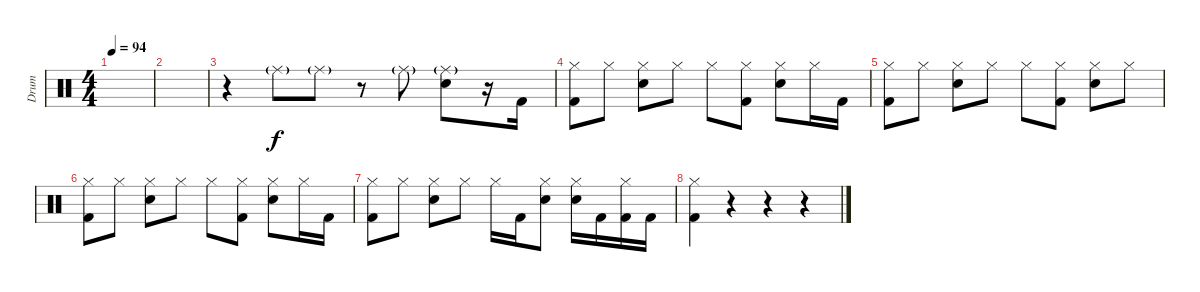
\track ("Drum" "Drum") {instrument percussion}
\staff {score}
\articulation defaults
\ts (4 4)
\tempo 94
\clef neutral
\ks c
|
|
r.4 "Ride (middle)"{g}.8 "Ride (middle)"{g}.8 r.8 "Ride (middle)"{g}.8 ("Electric Snare (hit)" "Ride (middle)"{g}).8 r.16 "Kick (hit) 2".16{dy f} |
("Hi-Hat (closed)" "Kick (hit) 2").8 "Hi-Hat (closed)".8 ("Electric Snare (hit)" "Hi-Hat (closed)").8 "Hi-Hat (closed)".8 "Hi-Hat (closed)".8 ("Hi-Hat (closed)" "Kick (hit) 2").8 ("Electric Snare (hit)" "Hi-Hat (closed)").8 "Hi-Hat (closed)".16 "Kick (hit) 2".16 |
("Hi-Hat (closed)" "Kick (hit) 2").8 "Hi-Hat (closed)".8 ("Electric Snare (hit)" "Hi-Hat (closed)").8 "Hi-Hat (closed)".8 "Hi-Hat (closed)".8 ("Hi-Hat (closed)" "Kick (hit) 2").8 ("Electric Snare (hit)" "Hi-Hat (closed)").8 "Hi-Hat (closed)".8 |
("Hi-Hat (closed)" "Kick (hit) 2").8 "Hi-Hat (closed)".8 ("Electric Snare (hit)" "Hi-Hat (closed)").8 "Hi-Hat (closed)".8 "Hi-Hat (closed)".8 ("Hi-Hat (closed)" "Kick (hit) 2").8 ("Electric Snare (hit)" "Hi-Hat (closed)").8 "Hi-Hat (closed)".16 "Kick (hit) 2".16 |
("Hi-Hat (closed)" "Kick (hit) 2").8 "Hi-Hat (closed)".8 ("Electric Snare (hit)" "Hi-Hat (closed)").8 "Hi-Hat (closed)".8 "Hi-Hat (closed)".16 "Kick (hit) 2".16 ("Hi-Hat (closed)" "Electric Snare (hit)").8 ("Hi-Hat (closed)" "Electric Snare (hit)").16 "Kick (hit) 2".16 ("Kick (hit) 2" "Hi-Hat (closed)").16 "Kick (hit) 2".16 |
("Hi-Hat (closed)" "Kick (hit) 2").4 r.4 r.4 r.4
